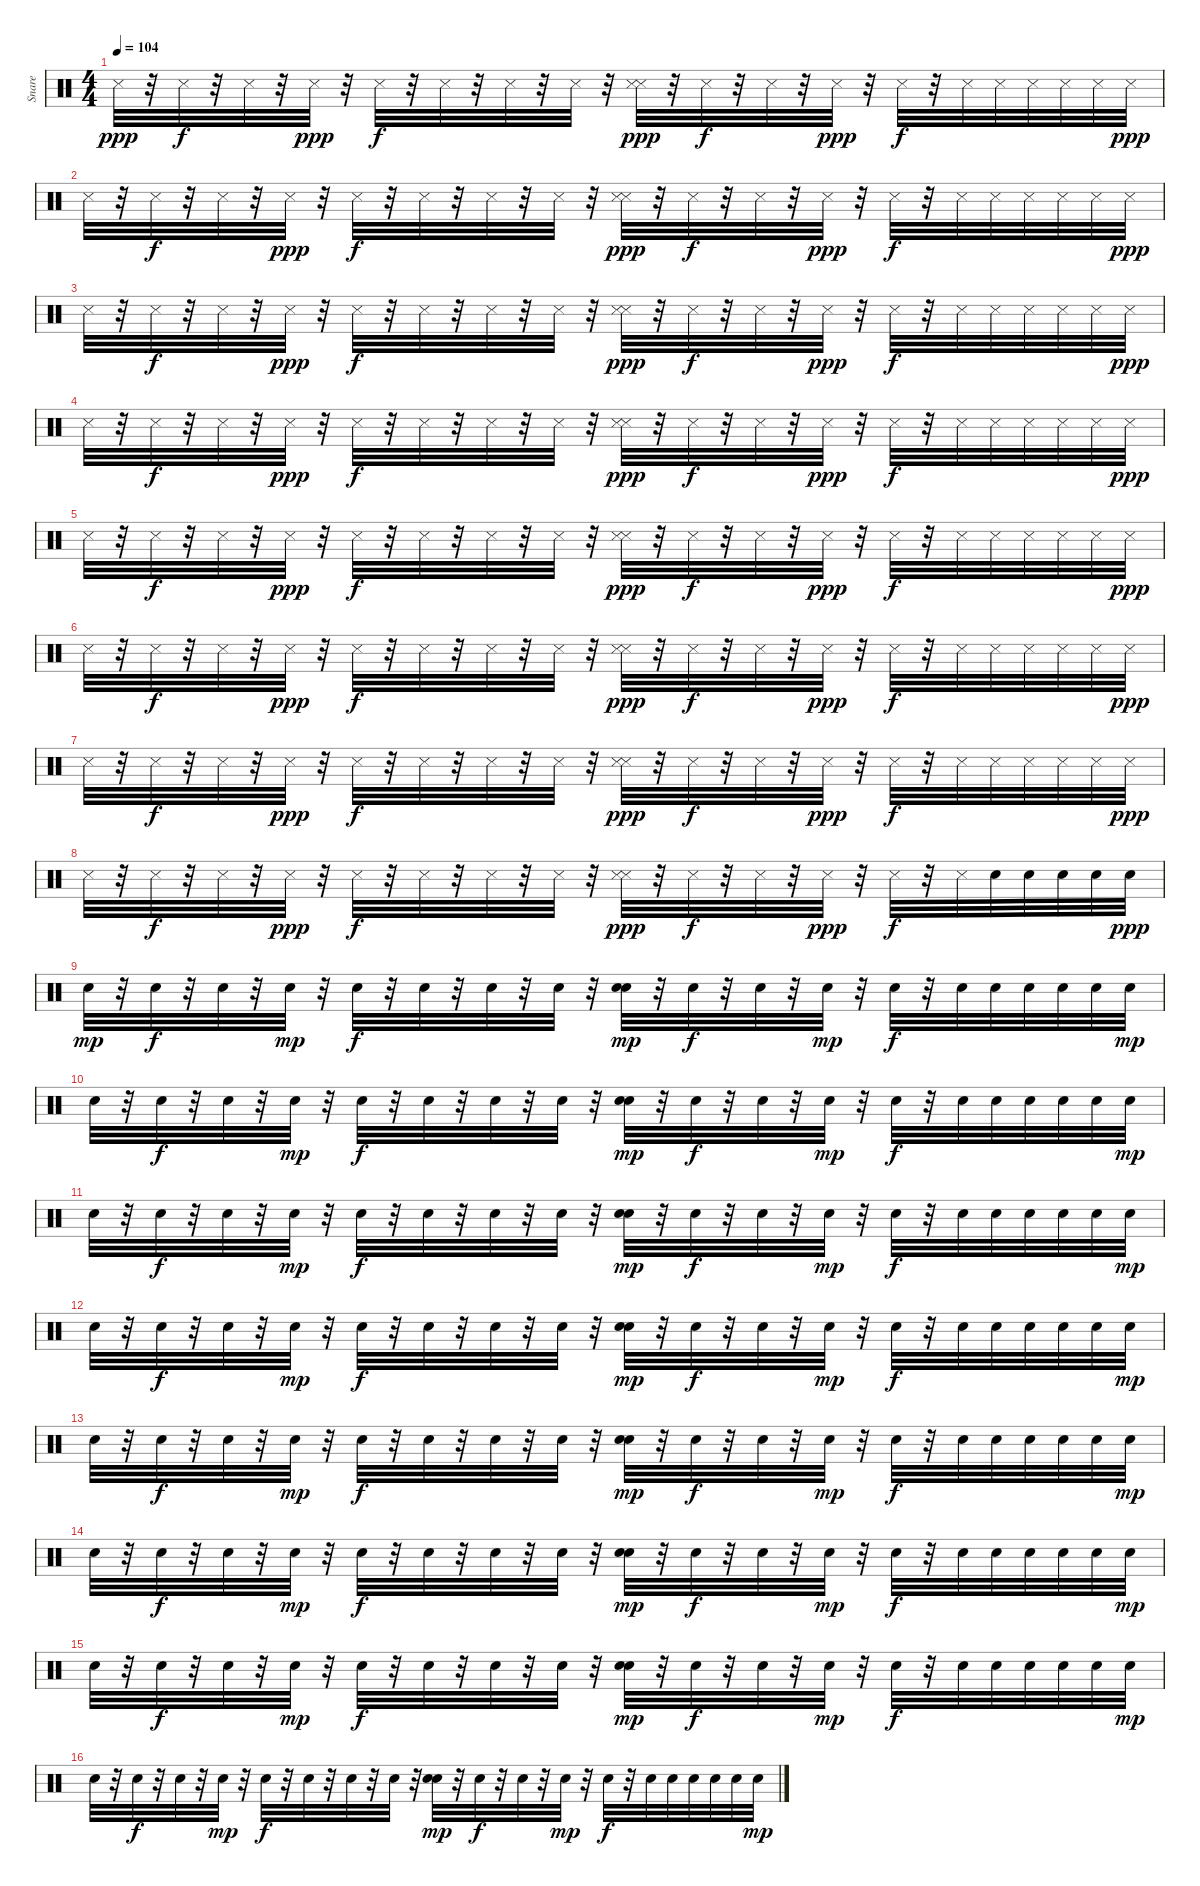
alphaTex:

\track ("Snare" "Snare") {instrument percussion}
\staff {score}
\articulation defaults
\ts (4 4)
\tempo 104
\clef neutral
\ks c "Snare (side stick) 3".32{dy ppp}
r.32 "Snare (side stick) 3".32{dy f} r.32 "Snare (side stick) 3".32 r.32 "Snare (side stick) 3".32{dy ppp} r.32 "Snare (side stick) 3".32{dy f} r.32 "Snare (side stick) 3".32 r.32 "Snare (side stick) 3".32 r.32 "Snare (side stick) 3".32 r.32 ("Snare (side stick) 3" "Snare (side stick) 3").32{dy ppp} r.32 "Snare (side stick) 3".32{dy f} r.32 "Snare (side stick) 3".32 r.32 "Snare (side stick) 3".32{dy ppp} r.32 "Snare (side stick) 3".32{dy f} r.32 "Snare (side stick) 3".32 "Snare (side stick) 3".32 "Snare (side stick) 3".32 "Snare (side stick) 3".32 "Snare (side stick) 3".32 "Snare (side stick) 3".32{dy ppp} |
"Snare (side stick) 3".32 r.32 "Snare (side stick) 3".32{dy f} r.32 "Snare (side stick) 3".32 r.32 "Snare (side stick) 3".32{dy ppp} r.32 "Snare (side stick) 3".32{dy f} r.32 "Snare (side stick) 3".32 r.32 "Snare (side stick) 3".32 r.32 "Snare (side stick) 3".32 r.32 ("Snare (side stick) 3" "Snare (side stick) 3").32{dy ppp} r.32 "Snare (side stick) 3".32{dy f} r.32 "Snare (side stick) 3".32 r.32 "Snare (side stick) 3".32{dy ppp} r.32 "Snare (side stick) 3".32{dy f} r.32 "Snare (side stick) 3".32 "Snare (side stick) 3".32 "Snare (side stick) 3".32 "Snare (side stick) 3".32 "Snare (side stick) 3".32 "Snare (side stick) 3".32{dy ppp} |
"Snare (side stick) 3".32 r.32 "Snare (side stick) 3".32{dy f} r.32 "Snare (side stick) 3".32 r.32 "Snare (side stick) 3".32{dy ppp} r.32 "Snare (side stick) 3".32{dy f} r.32 "Snare (side stick) 3".32 r.32 "Snare (side stick) 3".32 r.32 "Snare (side stick) 3".32 r.32 ("Snare (side stick) 3" "Snare (side stick) 3").32{dy ppp} r.32 "Snare (side stick) 3".32{dy f} r.32 "Snare (side stick) 3".32 r.32 "Snare (side stick) 3".32{dy ppp} r.32 "Snare (side stick) 3".32{dy f} r.32 "Snare (side stick) 3".32 "Snare (side stick) 3".32 "Snare (side stick) 3".32 "Snare (side stick) 3".32 "Snare (side stick) 3".32 "Snare (side stick) 3".32{dy ppp} |
"Snare (side stick) 3".32 r.32 "Snare (side stick) 3".32{dy f} r.32 "Snare (side stick) 3".32 r.32 "Snare (side stick) 3".32{dy ppp} r.32 "Snare (side stick) 3".32{dy f} r.32 "Snare (side stick) 3".32 r.32 "Snare (side stick) 3".32 r.32 "Snare (side stick) 3".32 r.32 ("Snare (side stick) 3" "Snare (side stick) 3").32{dy ppp} r.32 "Snare (side stick) 3".32{dy f} r.32 "Snare (side stick) 3".32 r.32 "Snare (side stick) 3".32{dy ppp} r.32 "Snare (side stick) 3".32{dy f} r.32 "Snare (side stick) 3".32 "Snare (side stick) 3".32 "Snare (side stick) 3".32 "Snare (side stick) 3".32 "Snare (side stick) 3".32 "Snare (side stick) 3".32{dy ppp} |
"Snare (side stick) 3".32 r.32 "Snare (side stick) 3".32{dy f} r.32 "Snare (side stick) 3".32 r.32 "Snare (side stick) 3".32{dy ppp} r.32 "Snare (side stick) 3".32{dy f} r.32 "Snare (side stick) 3".32 r.32 "Snare (side stick) 3".32 r.32 "Snare (side stick) 3".32 r.32 ("Snare (side stick) 3" "Snare (side stick) 3").32{dy ppp} r.32 "Snare (side stick) 3".32{dy f} r.32 "Snare (side stick) 3".32 r.32 "Snare (side stick) 3".32{dy ppp} r.32 "Snare (side stick) 3".32{dy f} r.32 "Snare (side stick) 3".32 "Snare (side stick) 3".32 "Snare (side stick) 3".32 "Snare (side stick) 3".32 "Snare (side stick) 3".32 "Snare (side stick) 3".32{dy ppp} |
"Snare (side stick) 3".32 r.32 "Snare (side stick) 3".32{dy f} r.32 "Snare (side stick) 3".32 r.32 "Snare (side stick) 3".32{dy ppp} r.32 "Snare (side stick) 3".32{dy f} r.32 "Snare (side stick) 3".32 r.32 "Snare (side stick) 3".32 r.32 "Snare (side stick) 3".32 r.32 ("Snare (side stick) 3" "Snare (side stick) 3").32{dy ppp} r.32 "Snare (side stick) 3".32{dy f} r.32 "Snare (side stick) 3".32 r.32 "Snare (side stick) 3".32{dy ppp} r.32 "Snare (side stick) 3".32{dy f} r.32 "Snare (side stick) 3".32 "Snare (side stick) 3".32 "Snare (side stick) 3".32 "Snare (side stick) 3".32 "Snare (side stick) 3".32 "Snare (side stick) 3".32{dy ppp} |
"Snare (side stick) 3".32 r.32 "Snare (side stick) 3".32{dy f} r.32 "Snare (side stick) 3".32 r.32 "Snare (side stick) 3".32{dy ppp} r.32 "Snare (side stick) 3".32{dy f} r.32 "Snare (side stick) 3".32 r.32 "Snare (side stick) 3".32 r.32 "Snare (side stick) 3".32 r.32 ("Snare (side stick) 3" "Snare (side stick) 3").32{dy ppp} r.32 "Snare (side stick) 3".32{dy f} r.32 "Snare (side stick) 3".32 r.32 "Snare (side stick) 3".32{dy ppp} r.32 "Snare (side stick) 3".32{dy f} r.32 "Snare (side stick) 3".32 "Snare (side stick) 3".32 "Snare (side stick) 3".32 "Snare (side stick) 3".32 "Snare (side stick) 3".32 "Snare (side stick) 3".32{dy ppp} |
"Snare (side stick) 3".32 r.32 "Snare (side stick) 3".32{dy f} r.32 "Snare (side stick) 3".32 r.32 "Snare (side stick) 3".32{dy ppp} r.32 "Snare (side stick) 3".32{dy f} r.32 "Snare (side stick) 3".32 r.32 "Snare (side stick) 3".32 r.32 "Snare (side stick) 3".32 r.32 ("Snare (side stick) 3" "Snare (side stick) 3").32{dy ppp} r.32 "Snare (side stick) 3".32{dy f} r.32 "Snare (side stick) 3".32 r.32 "Snare (side stick) 3".32{dy ppp} r.32 "Snare (side stick) 3".32{dy f} r.32 "Snare (side stick) 3".32 "Snare (hit) 2".32 "Snare (hit) 2".32 "Snare (hit) 2".32 "Snare (hit) 2".32 "Snare (hit) 2".32{dy ppp} |
"Snare (hit) 2".32{dy mp} r.32 "Snare (hit) 2".32{dy f} r.32 "Snare (hit) 2".32 r.32 "Snare (hit) 2".32{dy mp} r.32 "Snare (hit) 2".32{dy f} r.32 "Snare (hit) 2".32 r.32 "Snare (hit) 2".32 r.32 "Snare (hit) 2".32 r.32 ("Snare (hit) 2" "Snare (hit) 2").32{dy mp} r.32 "Snare (hit) 2".32{dy f} r.32 "Snare (hit) 2".32 r.32 "Snare (hit) 2".32{dy mp} r.32 "Snare (hit) 2".32{dy f} r.32 "Snare (hit) 2".32 "Snare (hit) 2".32 "Snare (hit) 2".32 "Snare (hit) 2".32 "Snare (hit) 2".32 "Snare (hit) 2".32{dy mp} |
"Snare (hit) 2".32 r.32 "Snare (hit) 2".32{dy f} r.32 "Snare (hit) 2".32 r.32 "Snare (hit) 2".32{dy mp} r.32 "Snare (hit) 2".32{dy f} r.32 "Snare (hit) 2".32 r.32 "Snare (hit) 2".32 r.32 "Snare (hit) 2".32 r.32 ("Snare (hit) 2" "Snare (hit) 2").32{dy mp} r.32 "Snare (hit) 2".32{dy f} r.32 "Snare (hit) 2".32 r.32 "Snare (hit) 2".32{dy mp} r.32 "Snare (hit) 2".32{dy f} r.32 "Snare (hit) 2".32 "Snare (hit) 2".32 "Snare (hit) 2".32 "Snare (hit) 2".32 "Snare (hit) 2".32 "Snare (hit) 2".32{dy mp} |
"Snare (hit) 2".32 r.32 "Snare (hit) 2".32{dy f} r.32 "Snare (hit) 2".32 r.32 "Snare (hit) 2".32{dy mp} r.32 "Snare (hit) 2".32{dy f} r.32 "Snare (hit) 2".32 r.32 "Snare (hit) 2".32 r.32 "Snare (hit) 2".32 r.32 ("Snare (hit) 2" "Snare (hit) 2").32{dy mp} r.32 "Snare (hit) 2".32{dy f} r.32 "Snare (hit) 2".32 r.32 "Snare (hit) 2".32{dy mp} r.32 "Snare (hit) 2".32{dy f} r.32 "Snare (hit) 2".32 "Snare (hit) 2".32 "Snare (hit) 2".32 "Snare (hit) 2".32 "Snare (hit) 2".32 "Snare (hit) 2".32{dy mp} |
"Snare (hit) 2".32 r.32 "Snare (hit) 2".32{dy f} r.32 "Snare (hit) 2".32 r.32 "Snare (hit) 2".32{dy mp} r.32 "Snare (hit) 2".32{dy f} r.32 "Snare (hit) 2".32 r.32 "Snare (hit) 2".32 r.32 "Snare (hit) 2".32 r.32 ("Snare (hit) 2" "Snare (hit) 2").32{dy mp} r.32 "Snare (hit) 2".32{dy f} r.32 "Snare (hit) 2".32 r.32 "Snare (hit) 2".32{dy mp} r.32 "Snare (hit) 2".32{dy f} r.32 "Snare (hit) 2".32 "Snare (hit) 2".32 "Snare (hit) 2".32 "Snare (hit) 2".32 "Snare (hit) 2".32 "Snare (hit) 2".32{dy mp} |
"Snare (hit) 2".32 r.32 "Snare (hit) 2".32{dy f} r.32 "Snare (hit) 2".32 r.32 "Snare (hit) 2".32{dy mp} r.32 "Snare (hit) 2".32{dy f} r.32 "Snare (hit) 2".32 r.32 "Snare (hit) 2".32 r.32 "Snare (hit) 2".32 r.32 ("Snare (hit) 2" "Snare (hit) 2").32{dy mp} r.32 "Snare (hit) 2".32{dy f} r.32 "Snare (hit) 2".32 r.32 "Snare (hit) 2".32{dy mp} r.32 "Snare (hit) 2".32{dy f} r.32 "Snare (hit) 2".32 "Snare (hit) 2".32 "Snare (hit) 2".32 "Snare (hit) 2".32 "Snare (hit) 2".32 "Snare (hit) 2".32{dy mp} |
"Snare (hit) 2".32 r.32 "Snare (hit) 2".32{dy f} r.32 "Snare (hit) 2".32 r.32 "Snare (hit) 2".32{dy mp} r.32 "Snare (hit) 2".32{dy f} r.32 "Snare (hit) 2".32 r.32 "Snare (hit) 2".32 r.32 "Snare (hit) 2".32 r.32 ("Snare (hit) 2" "Snare (hit) 2").32{dy mp} r.32 "Snare (hit) 2".32{dy f} r.32 "Snare (hit) 2".32 r.32 "Snare (hit) 2".32{dy mp} r.32 "Snare (hit) 2".32{dy f} r.32 "Snare (hit) 2".32 "Snare (hit) 2".32 "Snare (hit) 2".32 "Snare (hit) 2".32 "Snare (hit) 2".32 "Snare (hit) 2".32{dy mp} |
"Snare (hit) 2".32 r.32 "Snare (hit) 2".32{dy f} r.32 "Snare (hit) 2".32 r.32 "Snare (hit) 2".32{dy mp} r.32 "Snare (hit) 2".32{dy f} r.32 "Snare (hit) 2".32 r.32 "Snare (hit) 2".32 r.32 "Snare (hit) 2".32 r.32 ("Snare (hit) 2" "Snare (hit) 2").32{dy mp} r.32 "Snare (hit) 2".32{dy f} r.32 "Snare (hit) 2".32 r.32 "Snare (hit) 2".32{dy mp} r.32 "Snare (hit) 2".32{dy f} r.32 "Snare (hit) 2".32 "Snare (hit) 2".32 "Snare (hit) 2".32 "Snare (hit) 2".32 "Snare (hit) 2".32 "Snare (hit) 2".32{dy mp} |
"Snare (hit) 2".32 r.32 "Snare (hit) 2".32{dy f} r.32 "Snare (hit) 2".32 r.32 "Snare (hit) 2".32{dy mp} r.32 "Snare (hit) 2".32{dy f} r.32 "Snare (hit) 2".32 r.32 "Snare (hit) 2".32 r.32 "Snare (hit) 2".32 r.32 ("Snare (hit) 2" "Snare (hit) 2").32{dy mp} r.32 "Snare (hit) 2".32{dy f} r.32 "Snare (hit) 2".32 r.32 "Snare (hit) 2".32{dy mp} r.32 "Snare (hit) 2".32{dy f} r.32 "Snare (hit) 2".32 "Snare (hit) 2".32 "Snare (hit) 2".32 "Snare (hit) 2".32 "Snare (hit) 2".32 "Snare (hit) 2".32{dy mp}
